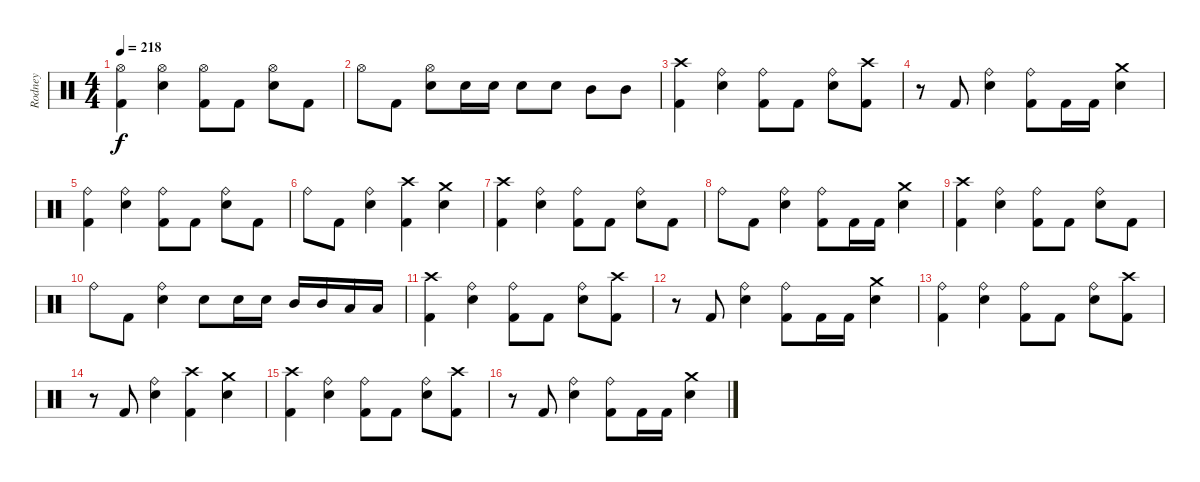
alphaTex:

\track ("Rodney" "Rodney") {instrument percussion}
\staff {score}
\articulation defaults
\ts (4 4)
\tempo 218
\clef neutral
\ks c
("Hi-Hat (open)" "Kick (hit) 2").4{dy f} ("Hi-Hat (open)" "Snare (hit) 2").4 ("Hi-Hat (open)" "Kick (hit) 2").8 "Kick (hit) 2".8 ("Hi-Hat (open)" "Snare (hit) 2").8 "Kick (hit) 2".8 |
"Hi-Hat (open)".8 "Kick (hit) 2".8 ("Hi-Hat (open)" "Snare (hit) 2").8 "Snare (hit) 2".16 "Snare (hit) 2".16 "Snare (hit) 2".8 "Snare (hit) 2".8 "Mid Tom (hit)".8 "Mid Tom (hit)".8 |
("Crash high (hit)" "Kick (hit) 2").4 ("Ride (bell)" "Snare (hit) 2").4 ("Ride (bell)" "Kick (hit) 2").8 "Kick (hit) 2".8 ("Ride (bell)" "Snare (hit) 2").8 ("Crash high (hit)" "Kick (hit) 2").8 |
r.8 "Kick (hit) 2".8 ("Ride (bell)" "Snare (hit) 2").4 ("Ride (bell)" "Kick (hit) 2").8 "Kick (hit) 2".16 "Kick (hit) 2".16 ("Crash medium (hit)" "Snare (hit) 2").4 |
("Ride (bell)" "Kick (hit) 2").4 ("Ride (bell)" "Snare (hit) 2").4 ("Ride (bell)" "Kick (hit) 2").8 "Kick (hit) 2".8 ("Ride (bell)" "Snare (hit) 2").8 "Kick (hit) 2".8 |
"Ride (bell)".8 "Kick (hit) 2".8 ("Ride (bell)" "Snare (hit) 2").4 ("Crash high (hit)" "Kick (hit) 2").4 ("Crash medium (hit)" "Snare (hit) 2").4 |
("Crash high (hit)" "Kick (hit) 2").4 ("Ride (bell)" "Snare (hit) 2").4 ("Ride (bell)" "Kick (hit) 2").8 "Kick (hit) 2".8 ("Ride (bell)" "Snare (hit) 2").8 "Kick (hit) 2".8 |
"Ride (bell)".8 "Kick (hit) 2".8 ("Ride (bell)" "Snare (hit) 2").4 ("Ride (bell)" "Kick (hit) 2").8 "Kick (hit) 2".16 "Kick (hit) 2".16 ("Crash medium (hit)" "Snare (hit) 2").4 |
("Crash high (hit)" "Kick (hit) 2").4 ("Ride (bell)" "Snare (hit) 2").4 ("Ride (bell)" "Kick (hit) 2").8 "Kick (hit) 2".8 ("Ride (bell)" "Snare (hit) 2").8 "Kick (hit) 2".8 |
"Ride (bell)".8 "Kick (hit) 2".8 ("Ride (bell)" "Snare (hit) 2").4 "Snare (hit) 2".8 "Snare (hit) 2".16 "Snare (hit) 2".16 "Mid Tom (hit)".16 "Mid Tom (hit)".16 "Low Tom (hit)".16 "Low Tom (hit)".16 |
("Crash high (hit)" "Kick (hit) 2").4 ("Ride (bell)" "Snare (hit) 2").4 ("Ride (bell)" "Kick (hit) 2").8 "Kick (hit) 2".8 ("Ride (bell)" "Snare (hit) 2").8 ("Crash high (hit)" "Kick (hit) 2").8 |
r.8 "Kick (hit) 2".8 ("Ride (bell)" "Snare (hit) 2").4 ("Ride (bell)" "Kick (hit) 2").8 "Kick (hit) 2".16 "Kick (hit) 2".16 ("Crash medium (hit)" "Snare (hit) 2").4 |
("Ride (bell)" "Kick (hit) 2").4 ("Ride (bell)" "Snare (hit) 2").4 ("Ride (bell)" "Kick (hit) 2").8 "Kick (hit) 2".8 ("Ride (bell)" "Snare (hit) 2").8 ("Crash high (hit)" "Kick (hit) 2").8 |
r.8 "Kick (hit) 2".8 ("Ride (bell)" "Snare (hit) 2").4 ("Crash high (hit)" "Kick (hit) 2").4 ("Crash medium (hit)" "Snare (hit) 2").4 |
("Crash high (hit)" "Kick (hit) 2").4 ("Ride (bell)" "Snare (hit) 2").4 ("Ride (bell)" "Kick (hit) 2").8 "Kick (hit) 2".8 ("Ride (bell)" "Snare (hit) 2").8 ("Crash high (hit)" "Kick (hit) 2").8 |
r.8 "Kick (hit) 2".8 ("Ride (bell)" "Snare (hit) 2").4 ("Ride (bell)" "Kick (hit) 2").8 "Kick (hit) 2".16 "Kick (hit) 2".16 ("Crash medium (hit)" "Snare (hit) 2").4
